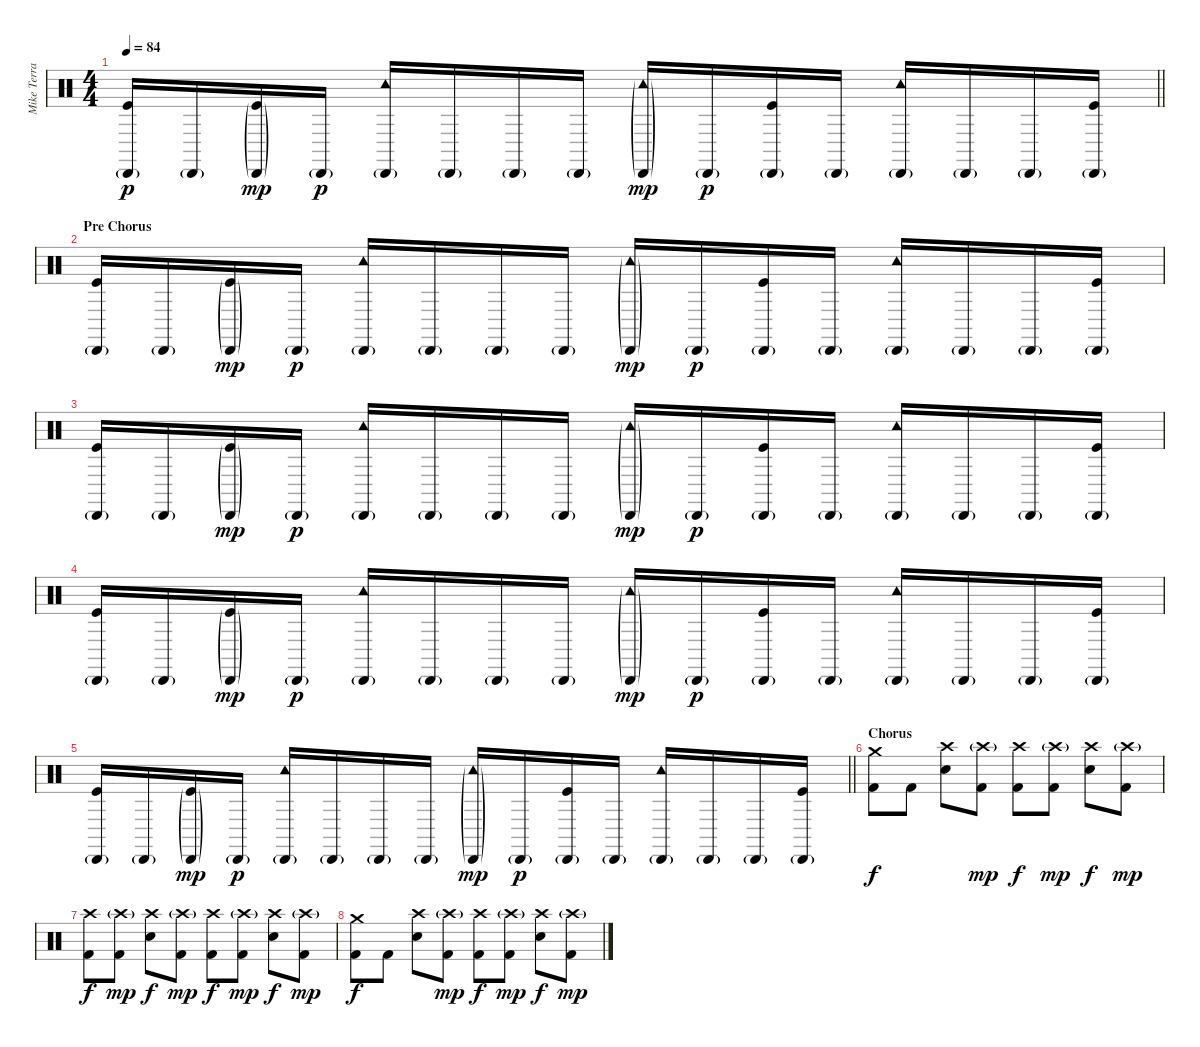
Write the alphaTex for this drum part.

\track ("Mike Terrana" "Mike Terra") {instrument percussion}
\staff {score}
\articulation defaults
\ts (4 4)
\tempo 84
\clef neutral
\barLineRight lightlight
\ks c
("Cabasa (hit)"{g} "Kick (hit)").16{dy p} "Cabasa (hit)"{g}.16 ("Cabasa (hit)"{g} "Kick (hit)"{g}).16{dy mp} "Cabasa (hit)"{g}.16{dy p} ("Cabasa (hit)"{g} "Tambourine (hit)").16 "Cabasa (hit)"{g}.16 "Cabasa (hit)"{g}.16 "Cabasa (hit)"{g}.16 ("Cabasa (hit)"{g} "Tambourine (hit)"{g}).16{dy mp} "Cabasa (hit)"{g}.16{dy p} ("Cabasa (hit)"{g} "Kick (hit)").16 "Cabasa (hit)"{g}.16 ("Cabasa (hit)"{g} "Tambourine (hit)").16 "Cabasa (hit)"{g}.16 "Cabasa (hit)"{g}.16 ("Cabasa (hit)"{g} "Kick (hit)").16 |
\section ("" "Pre Chorus")
("Cabasa (hit)"{g} "Kick (hit)").16 "Cabasa (hit)"{g}.16 ("Cabasa (hit)"{g} "Kick (hit)"{g}).16{dy mp} "Cabasa (hit)"{g}.16{dy p} ("Cabasa (hit)"{g} "Tambourine (hit)").16 "Cabasa (hit)"{g}.16 "Cabasa (hit)"{g}.16 "Cabasa (hit)"{g}.16 ("Cabasa (hit)"{g} "Tambourine (hit)"{g}).16{dy mp} "Cabasa (hit)"{g}.16{dy p} ("Cabasa (hit)"{g} "Kick (hit)").16 "Cabasa (hit)"{g}.16 ("Cabasa (hit)"{g} "Tambourine (hit)").16 "Cabasa (hit)"{g}.16 "Cabasa (hit)"{g}.16 ("Cabasa (hit)"{g} "Kick (hit)").16 |
("Cabasa (hit)"{g} "Kick (hit)").16 "Cabasa (hit)"{g}.16 ("Cabasa (hit)"{g} "Kick (hit)"{g}).16{dy mp} "Cabasa (hit)"{g}.16{dy p} ("Cabasa (hit)"{g} "Tambourine (hit)").16 "Cabasa (hit)"{g}.16 "Cabasa (hit)"{g}.16 "Cabasa (hit)"{g}.16 ("Cabasa (hit)"{g} "Tambourine (hit)"{g}).16{dy mp} "Cabasa (hit)"{g}.16{dy p} ("Cabasa (hit)"{g} "Kick (hit)").16 "Cabasa (hit)"{g}.16 ("Cabasa (hit)"{g} "Tambourine (hit)").16 "Cabasa (hit)"{g}.16 "Cabasa (hit)"{g}.16 ("Cabasa (hit)"{g} "Kick (hit)").16 |
("Cabasa (hit)"{g} "Kick (hit)").16 "Cabasa (hit)"{g}.16 ("Cabasa (hit)"{g} "Kick (hit)"{g}).16{dy mp} "Cabasa (hit)"{g}.16{dy p} ("Cabasa (hit)"{g} "Tambourine (hit)").16 "Cabasa (hit)"{g}.16 "Cabasa (hit)"{g}.16 "Cabasa (hit)"{g}.16 ("Cabasa (hit)"{g} "Tambourine (hit)"{g}).16{dy mp} "Cabasa (hit)"{g}.16{dy p} ("Cabasa (hit)"{g} "Kick (hit)").16 "Cabasa (hit)"{g}.16 ("Cabasa (hit)"{g} "Tambourine (hit)").16 "Cabasa (hit)"{g}.16 "Cabasa (hit)"{g}.16 ("Cabasa (hit)"{g} "Kick (hit)").16 |
\barLineRight lightlight
("Cabasa (hit)"{g} "Kick (hit)").16 "Cabasa (hit)"{g}.16 ("Cabasa (hit)"{g} "Kick (hit)"{g}).16{dy mp} "Cabasa (hit)"{g}.16{dy p} ("Cabasa (hit)"{g} "Tambourine (hit)").16 "Cabasa (hit)"{g}.16 "Cabasa (hit)"{g}.16 "Cabasa (hit)"{g}.16 ("Cabasa (hit)"{g} "Tambourine (hit)"{g}).16{dy mp} "Cabasa (hit)"{g}.16{dy p} ("Cabasa (hit)"{g} "Kick (hit)").16 "Cabasa (hit)"{g}.16 ("Cabasa (hit)"{g} "Tambourine (hit)").16 "Cabasa (hit)"{g}.16 "Cabasa (hit)"{g}.16 ("Cabasa (hit)"{g} "Kick (hit)").16 |
\section ("" "Chorus")
("Crash medium (hit)" "Kick (hit) 2").8{dy f} "Kick (hit) 2".8 ("Crash high (hit)" "Snare (hit) 2").8 ("Crash high (hit)"{g} "Kick (hit) 2").8{dy mp} ("Crash high (hit)" "Kick (hit) 2").8{dy f} ("Crash high (hit)"{g} "Kick (hit) 2").8{dy mp} ("Crash high (hit)" "Snare (hit) 2").8{dy f} ("Crash high (hit)"{g} "Kick (hit) 2").8{dy mp} |
("Crash high (hit)" "Kick (hit) 2").8{dy f} ("Crash high (hit)"{g} "Kick (hit) 2").8{dy mp} ("Crash high (hit)" "Snare (hit) 2").8{dy f} ("Crash high (hit)"{g} "Kick (hit) 2").8{dy mp} ("Crash high (hit)" "Kick (hit) 2").8{dy f} ("Crash high (hit)"{g} "Kick (hit) 2").8{dy mp} ("Crash high (hit)" "Snare (hit) 2").8{dy f} ("Crash high (hit)"{g} "Kick (hit) 2").8{dy mp} |
("Crash medium (hit)" "Kick (hit) 2").8{dy f} "Kick (hit) 2".8 ("Crash high (hit)" "Snare (hit) 2").8 ("Crash high (hit)"{g} "Kick (hit) 2").8{dy mp} ("Crash high (hit)" "Kick (hit) 2").8{dy f} ("Crash high (hit)"{g} "Kick (hit) 2").8{dy mp} ("Crash high (hit)" "Snare (hit) 2").8{dy f} ("Crash high (hit)"{g} "Kick (hit) 2").8{dy mp}
